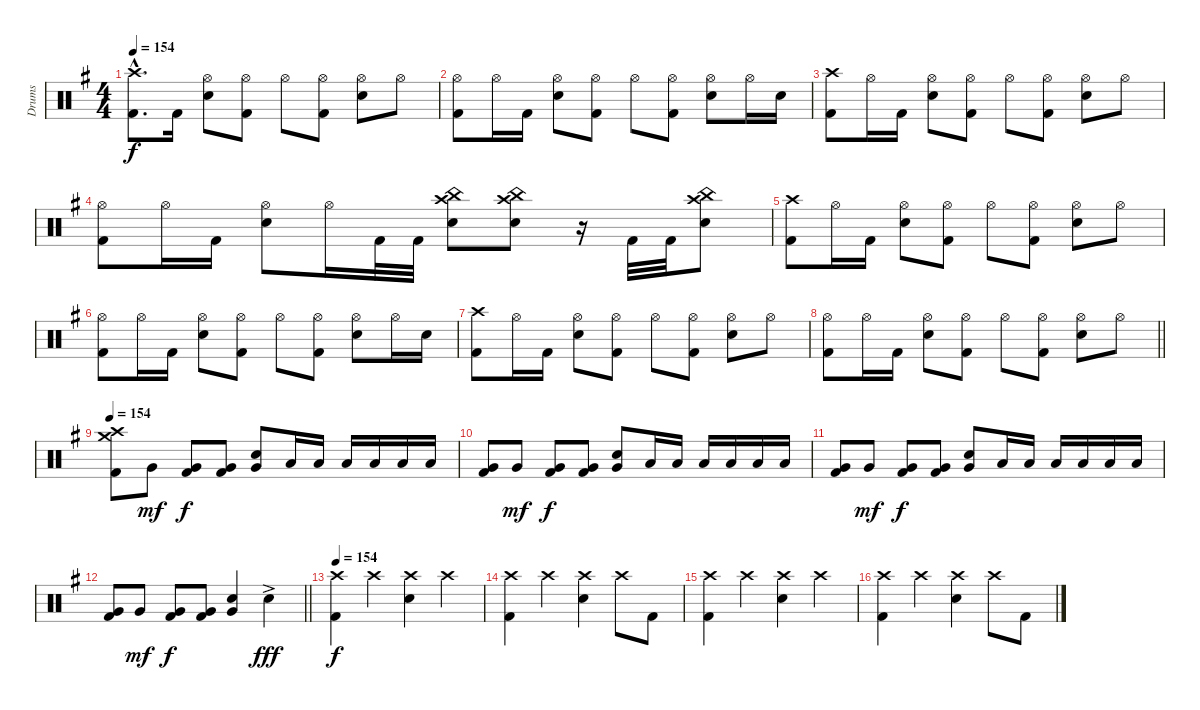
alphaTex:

\track ("Drums" "Drums") {instrument percussion}
\staff {score}
\articulation defaults
\ts (4 4)
\tempo 154
\clef neutral
\ks eminor
("Crash high (hit)"{hac} "Kick (hit) 2"{hac}).8{d dy f} "Kick (hit) 2".16 ("Hi-Hat (open)" "Snare (hit) 2").8 ("Hi-Hat (open)" "Kick (hit) 2").8 "Hi-Hat (open)".8 ("Hi-Hat (open)" "Kick (hit) 2").8 ("Hi-Hat (open)" "Snare (hit) 2").8 "Hi-Hat (open)".8 |
("Hi-Hat (open)" "Kick (hit) 2").8 "Hi-Hat (open)".16 "Kick (hit) 2".16 ("Hi-Hat (open)" "Snare (hit) 2").8 ("Hi-Hat (open)" "Kick (hit) 2").8 "Hi-Hat (open)".8 ("Hi-Hat (open)" "Kick (hit) 2").8 ("Hi-Hat (open)" "Snare (hit) 2").8 "Hi-Hat (open)".16 "Snare (hit) 2".16 |
("Crash high (hit)" "Kick (hit) 2").8 "Hi-Hat (open)".16 "Kick (hit) 2".16 ("Hi-Hat (open)" "Snare (hit) 2").8 ("Hi-Hat (open)" "Kick (hit) 2").8 "Hi-Hat (open)".8 ("Hi-Hat (open)" "Kick (hit) 2").8 ("Hi-Hat (open)" "Snare (hit) 2").8 "Hi-Hat (open)".8 |
("Hi-Hat (open)" "Kick (hit) 2").8 "Hi-Hat (open)".16 "Kick (hit) 2".16 ("Hi-Hat (open)" "Snare (hit) 2").8 "Hi-Hat (open)".16 "Kick (hit) 2".32 "Kick (hit) 2".32 ("China (hit)" "Crash high (hit)" "Snare (hit) 2").8 ("China (hit)" "Crash high (hit)" "Snare (hit) 2").8 r.16 "Kick (hit) 2".32 "Kick (hit) 2".32 ("China (hit)" "Crash high (hit)" "Snare (hit) 2").8 |
("Crash high (hit)" "Kick (hit) 2").8 "Hi-Hat (open)".16 "Kick (hit) 2".16 ("Hi-Hat (open)" "Snare (hit) 2").8 ("Hi-Hat (open)" "Kick (hit) 2").8 "Hi-Hat (open)".8 ("Hi-Hat (open)" "Kick (hit) 2").8 ("Hi-Hat (open)" "Snare (hit) 2").8 "Hi-Hat (open)".8 |
("Hi-Hat (open)" "Kick (hit) 2").8 "Hi-Hat (open)".16 "Kick (hit) 2".16 ("Hi-Hat (open)" "Snare (hit) 2").8 ("Hi-Hat (open)" "Kick (hit) 2").8 "Hi-Hat (open)".8 ("Hi-Hat (open)" "Kick (hit) 2").8 ("Hi-Hat (open)" "Snare (hit) 2").8 "Hi-Hat (open)".16 "Snare (hit) 2".16 |
("Crash high (hit)" "Kick (hit) 2").8 "Hi-Hat (open)".16 "Kick (hit) 2".16 ("Hi-Hat (open)" "Snare (hit) 2").8 ("Hi-Hat (open)" "Kick (hit) 2").8 "Hi-Hat (open)".8 ("Hi-Hat (open)" "Kick (hit) 2").8 ("Hi-Hat (open)" "Snare (hit) 2").8 "Hi-Hat (open)".8 |
\barLineRight lightlight
("Hi-Hat (open)" "Kick (hit) 2").8 "Hi-Hat (open)".16 "Kick (hit) 2".16 ("Hi-Hat (open)" "Snare (hit) 2").8 ("Hi-Hat (open)" "Kick (hit) 2").8 "Hi-Hat (open)".8 ("Hi-Hat (open)" "Kick (hit) 2").8 ("Hi-Hat (open)" "Snare (hit) 2").8 "Hi-Hat (open)".8 |
\tempo 154
("Crash high (hit)" "Crash medium (hit)" "Kick (hit) 2").8 "Very Low Tom (hit)".8{dy mf} ("Very Low Tom (hit)" "Kick (hit) 2").8{dy f} ("Very Low Tom (hit)" "Kick (hit) 2").8 ("Snare (hit) 2" "Very Low Tom (hit)").8 "Low Tom (hit)".16 "Low Tom (hit)".16 "Low Tom (hit)".16 "Low Tom (hit)".16 "Low Tom (hit)".16 "Low Tom (hit)".16 |
("Very Low Tom (hit)" "Kick (hit) 2").8 "Very Low Tom (hit)".8{dy mf} ("Very Low Tom (hit)" "Kick (hit) 2").8{dy f} ("Very Low Tom (hit)" "Kick (hit) 2").8 ("Snare (hit) 2" "Very Low Tom (hit)").8 "Low Tom (hit)".16 "Low Tom (hit)".16 "Low Tom (hit)".16 "Low Tom (hit)".16 "Low Tom (hit)".16 "Low Tom (hit)".16 |
("Very Low Tom (hit)" "Kick (hit) 2").8 "Very Low Tom (hit)".8{dy mf} ("Very Low Tom (hit)" "Kick (hit) 2").8{dy f} ("Very Low Tom (hit)" "Kick (hit) 2").8 ("Snare (hit) 2" "Very Low Tom (hit)").8 "Low Tom (hit)".16 "Low Tom (hit)".16 "Low Tom (hit)".16 "Low Tom (hit)".16 "Low Tom (hit)".16 "Low Tom (hit)".16 |
\barLineRight lightlight
("Very Low Tom (hit)" "Kick (hit) 2").8 "Very Low Tom (hit)".8{dy mf} ("Very Low Tom (hit)" "Kick (hit) 2").8{dy f} ("Very Low Tom (hit)" "Kick (hit) 2").8 ("Snare (hit) 2" "Very Low Tom (hit)").4 "Snare (hit) 2"{ac}.4{dy fff} |
\tempo 154
("Crash high (hit)" "Kick (hit) 2").4{dy f} "Crash high (hit)".4 ("Crash high (hit)" "Snare (hit) 2").4 "Crash high (hit)".4 |
("Crash high (hit)" "Kick (hit) 2").4 "Crash high (hit)".4 ("Crash high (hit)" "Snare (hit) 2").4 "Crash high (hit)".8 "Kick (hit) 2".8 |
("Crash high (hit)" "Kick (hit) 2").4 "Crash high (hit)".4 ("Crash high (hit)" "Snare (hit) 2").4 "Crash high (hit)".4 |
("Crash high (hit)" "Kick (hit) 2").4 "Crash high (hit)".4 ("Crash high (hit)" "Snare (hit) 2").4 "Crash high (hit)".8 "Kick (hit) 2".8
